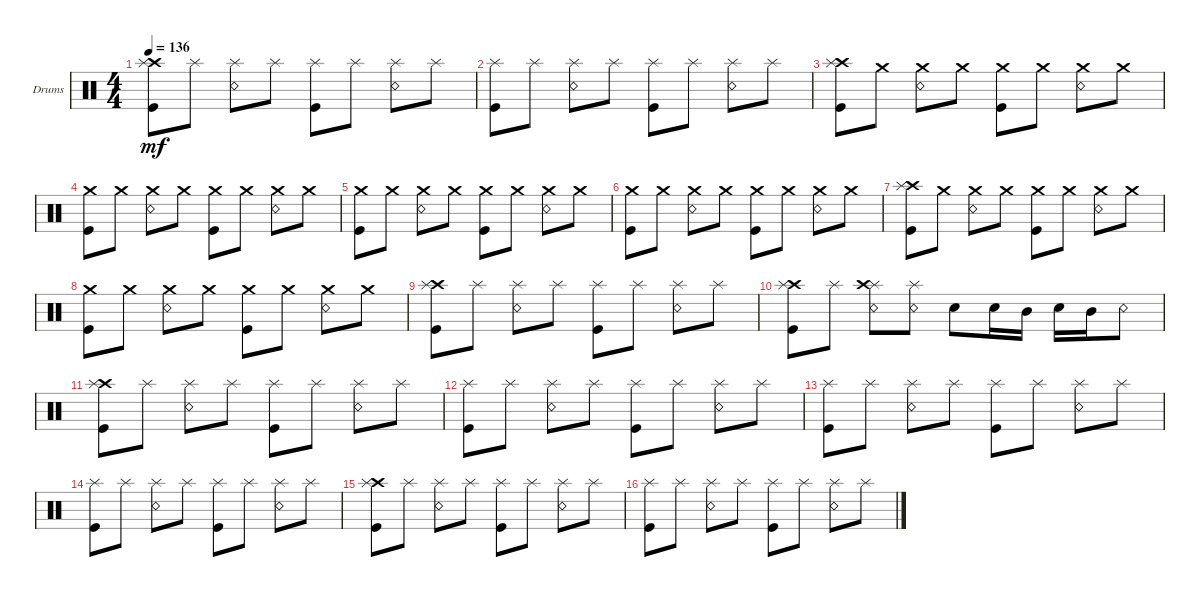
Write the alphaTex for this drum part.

\defaultSystemsLayout 4
\bracketExtendMode groupsimilarinstruments
\firstSystemTrackNameOrientation horizontal
\otherSystemsTrackNameOrientation horizontal
\track ("Нюта" "Drums") {instrument percussion}
\staff {score}
\articulation defaults
\ts (4 4)
\tempo 136
\clef neutral
\ks c
("Crash high (hit)" "Kick (hit)" "Splash (hit)").8{dy mf} "Splash (hit)".8 ("Snare (rim shot)" "Splash (hit)").8 "Splash (hit)".8 ("Kick (hit)" "Splash (hit)").8 "Splash (hit)".8 ("Snare (rim shot)" "Splash (hit)").8 "Splash (hit)".8 |
("Kick (hit)" "Splash (hit)").8 "Splash (hit)".8 ("Snare (rim shot)" "Splash (hit)").8 "Splash (hit)".8 ("Kick (hit)" "Splash (hit)").8 "Splash (hit)".8 ("Snare (rim shot)" "Splash (hit)").8 "Splash (hit)".8 |
("Crash high (hit)" "Kick (hit)" "Splash (hit)").8 "Crash medium (hit)".8 ("Snare (rim shot)" "Crash medium (hit)").8 "Crash medium (hit)".8 ("Kick (hit)" "Crash medium (hit)").8 "Crash medium (hit)".8 ("Snare (rim shot)" "Crash medium (hit)").8 "Crash medium (hit)".8 |
("Kick (hit)" "Crash medium (hit)").8 "Crash medium (hit)".8 ("Snare (rim shot)" "Crash medium (hit)").8 "Crash medium (hit)".8 ("Kick (hit)" "Crash medium (hit)").8 "Crash medium (hit)".8 ("Snare (rim shot)" "Crash medium (hit)").8 "Crash medium (hit)".8 |
("Kick (hit)" "Crash medium (hit)").8 "Crash medium (hit)".8 ("Snare (rim shot)" "Crash medium (hit)").8 "Crash medium (hit)".8 ("Kick (hit)" "Crash medium (hit)").8 "Crash medium (hit)".8 ("Snare (rim shot)" "Crash medium (hit)").8 "Crash medium (hit)".8 |
("Kick (hit)" "Crash medium (hit)").8 "Crash medium (hit)".8 ("Snare (rim shot)" "Crash medium (hit)").8 "Crash medium (hit)".8 ("Kick (hit)" "Crash medium (hit)").8 "Crash medium (hit)".8 ("Snare (rim shot)" "Crash medium (hit)").8 "Crash medium (hit)".8 |
("Crash high (hit)" "Kick (hit)" "Splash (hit)").8 "Crash medium (hit)".8 ("Snare (rim shot)" "Crash medium (hit)").8 "Crash medium (hit)".8 ("Kick (hit)" "Crash medium (hit)").8 "Crash medium (hit)".8 ("Snare (rim shot)" "Crash medium (hit)").8 "Crash medium (hit)".8 |
("Kick (hit)" "Crash medium (hit)").8 "Crash medium (hit)".8 ("Snare (rim shot)" "Crash medium (hit)").8 "Crash medium (hit)".8 ("Kick (hit)" "Crash medium (hit)").8 "Crash medium (hit)".8 ("Snare (rim shot)" "Crash medium (hit)").8 "Crash medium (hit)".8 |
("Crash high (hit)" "Kick (hit)" "Splash (hit)").8 "Splash (hit)".8 ("Snare (rim shot)" "Splash (hit)").8 "Splash (hit)".8 ("Kick (hit)" "Splash (hit)").8 "Splash (hit)".8 ("Snare (rim shot)" "Splash (hit)").8 "Splash (hit)".8 |
("Crash high (hit)" "Kick (hit)" "Splash (hit)").8 "Splash (hit)".8 ("Snare (rim shot)" "Splash (hit)" "Crash high (hit)").8 ("Splash (hit)" "Snare (rim shot)").8 "Snare (hit) 2".8 "Snare (hit) 2".16 "Mid Tom (hit)".16 "Snare (hit) 2".16 "Mid Tom (hit)".16 "Snare (rim shot)".8 |
("Crash high (hit)" "Kick (hit)" "Splash (hit)").8 "Splash (hit)".8 ("Snare (rim shot)" "Splash (hit)").8 "Splash (hit)".8 ("Kick (hit)" "Splash (hit)").8 "Splash (hit)".8 ("Snare (rim shot)" "Splash (hit)").8 "Splash (hit)".8 |
("Kick (hit)" "Splash (hit)").8 "Splash (hit)".8 ("Snare (rim shot)" "Splash (hit)").8 "Splash (hit)".8 ("Kick (hit)" "Splash (hit)").8 "Splash (hit)".8 ("Snare (rim shot)" "Splash (hit)").8 "Splash (hit)".8 |
("Kick (hit)" "Splash (hit)").8 "Splash (hit)".8 ("Snare (rim shot)" "Splash (hit)").8 "Splash (hit)".8 ("Kick (hit)" "Splash (hit)").8 "Splash (hit)".8 ("Snare (rim shot)" "Splash (hit)").8 "Splash (hit)".8 |
("Kick (hit)" "Splash (hit)").8 "Splash (hit)".8 ("Snare (rim shot)" "Splash (hit)").8 "Splash (hit)".8 ("Kick (hit)" "Splash (hit)").8 "Splash (hit)".8 ("Snare (rim shot)" "Splash (hit)").8 "Splash (hit)".8 |
("Crash high (hit)" "Kick (hit)" "Splash (hit)").8 "Splash (hit)".8 ("Snare (rim shot)" "Splash (hit)").8 "Splash (hit)".8 ("Kick (hit)" "Splash (hit)").8 "Splash (hit)".8 ("Snare (rim shot)" "Splash (hit)").8 "Splash (hit)".8 |
("Kick (hit)" "Splash (hit)").8 "Splash (hit)".8 ("Snare (rim shot)" "Splash (hit)").8 "Splash (hit)".8 ("Kick (hit)" "Splash (hit)").8 "Splash (hit)".8 ("Snare (rim shot)" "Splash (hit)").8 "Splash (hit)".8
